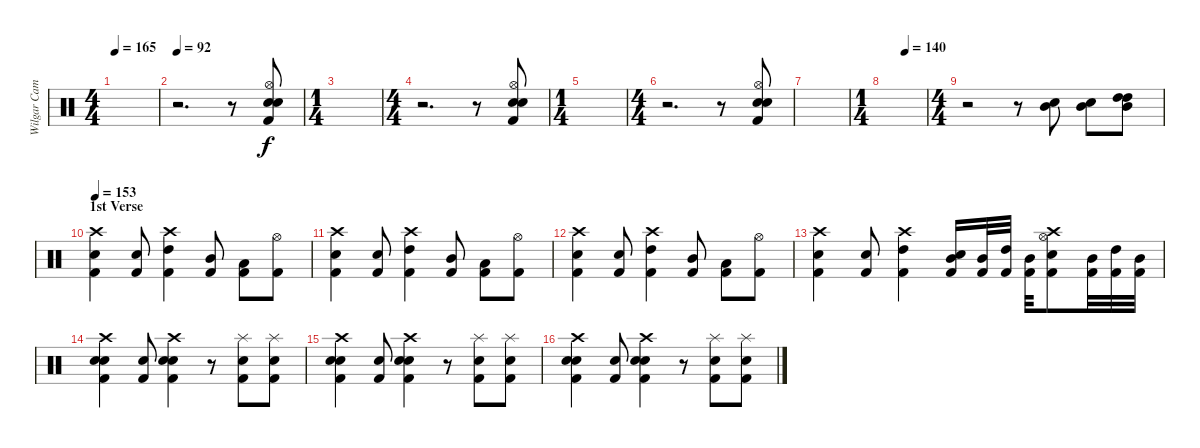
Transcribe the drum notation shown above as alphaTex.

\track ("Wilgar Campbell" "Wilgar Cam") {instrument percussion}
\staff {score}
\articulation defaults
\ts (4 4)
\tempo 165
\clef neutral
\ks c
|
\tempo 92
r.2{d} r.8 ("Kick (hit) 2" "Snare (hit) 2" "Hi-Hat (open)" "Electric Snare (hit)").8 |
\ts (1 4)
|
\ts (4 4)
r.2{d} r.8 ("Kick (hit) 2" "Snare (hit) 2" "Hi-Hat (open)" "Electric Snare (hit)").8 |
\ts (1 4)
|
\ts (4 4)
r.2{d} r.8 ("Kick (hit) 2" "Snare (hit) 2" "Hi-Hat (open)" "Electric Snare (hit)").8 |
|
\ts (1 4)
\tempo (140 0.5)
|
\ts (4 4)
r.2 r.8 ("Electric Snare (hit)" "Mid Tom (hit)").8 ("Snare (hit) 2" "Mid Tom (hit)").8 ("High Tom (hit)" "High Tom (hit)" "Mid Tom (hit)").8 |
\section ("" "1st Verse")
\tempo 153
("Crash high (hit)" "Electric Snare (hit)" "Kick (hit) 2").4 ("Snare (hit) 2" "Kick (hit) 2").8 ("Crash high (hit)" "High Tom (hit)" "Kick (hit) 2").4 ("Mid Tom (hit)" "Kick (hit) 2").8 ("Low Tom (hit)" "Kick (hit) 2").8 ("Hi-Hat (open)" "Kick (hit) 2").8 |
("Crash high (hit)" "Electric Snare (hit)" "Kick (hit) 2").4 ("Snare (hit) 2" "Kick (hit) 2").8 ("Crash high (hit)" "High Tom (hit)" "Kick (hit) 2").4 ("Mid Tom (hit)" "Kick (hit) 2").8 ("Low Tom (hit)" "Kick (hit) 2").8 ("Hi-Hat (open)" "Kick (hit) 2").8 |
("Crash high (hit)" "Electric Snare (hit)" "Kick (hit) 2").4 ("Snare (hit) 2" "Kick (hit) 2").8 ("Crash high (hit)" "High Tom (hit)" "Kick (hit) 2").4 ("Mid Tom (hit)" "Kick (hit) 2").8 ("Low Tom (hit)" "Kick (hit) 2").8 ("Hi-Hat (open)" "Kick (hit) 2").8 |
("Crash high (hit)" "Electric Snare (hit)" "Kick (hit) 2").4 ("Snare (hit) 2" "Kick (hit) 2").8 ("Crash high (hit)" "High Tom (hit)" "Kick (hit) 2").4 ("Snare (hit) 2" "Mid Tom (hit)" "Kick (hit) 2").16 ("Mid Tom (hit)" "Kick (hit) 2").32 ("High Tom (hit)" "Kick (hit) 2").32 ("Mid Tom (hit)" "Kick (hit) 2").32 ("Crash high (hit)" "Electric Snare (hit)" "Hi-Hat (open)" "Kick (hit) 2").8 ("Mid Tom (hit)" "Kick (hit) 2").32 ("High Tom (hit)" "Kick (hit) 2").32 ("Mid Tom (hit)" "Kick (hit) 2").32 |
("Crash high (hit)" "Snare (hit) 2" "Snare (hit) 2" "Kick (hit) 2").4 ("Electric Snare (hit)" "Kick (hit) 2").8 ("Crash high (hit)" "Snare (hit) 2" "Snare (hit) 2" "Kick (hit) 2").4 r.8 ("Splash (hit)" "Kick (hit) 2" "Electric Snare (hit)").8 ("Splash (hit)" "Snare (hit) 2" "Kick (hit) 2").8 |
("Crash high (hit)" "Snare (hit) 2" "Snare (hit) 2" "Kick (hit) 2").4 ("Electric Snare (hit)" "Kick (hit) 2").8 ("Crash high (hit)" "Snare (hit) 2" "Snare (hit) 2" "Kick (hit) 2").4 r.8 ("Splash (hit)" "Kick (hit) 2" "Electric Snare (hit)").8 ("Splash (hit)" "Snare (hit) 2" "Kick (hit) 2").8 |
("Crash high (hit)" "Snare (hit) 2" "Snare (hit) 2" "Kick (hit) 2").4 ("Electric Snare (hit)" "Kick (hit) 2").8 ("Crash high (hit)" "Snare (hit) 2" "Snare (hit) 2" "Kick (hit) 2").4 r.8 ("Splash (hit)" "Kick (hit) 2" "Electric Snare (hit)").8 ("Splash (hit)" "Snare (hit) 2" "Kick (hit) 2").8
